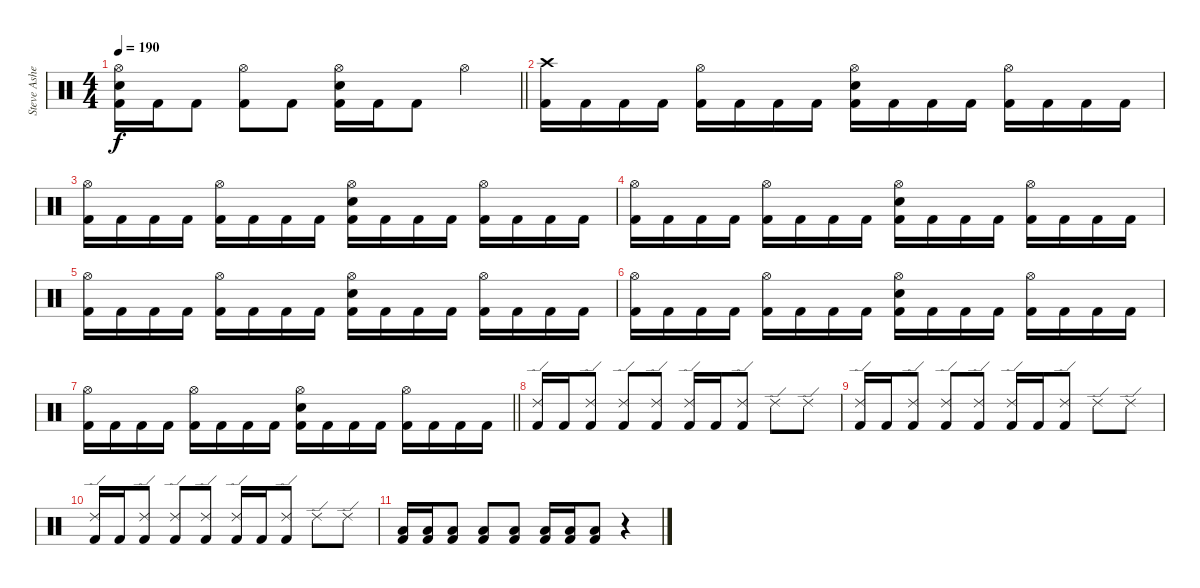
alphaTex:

\track ("Steve Asheim" "Steve Ashe") {instrument percussion}
\staff {score}
\articulation defaults
\ts (4 4)
\tempo 190
\clef neutral
\barLineRight lightlight
\ks c
("Hi-Hat (open)" "Electric Snare (hit)" "Kick (hit) 2").16{dy f} "Kick (hit) 2".16 "Kick (hit) 2".8 ("Hi-Hat (open)" "Kick (hit) 2").8 "Kick (hit) 2".8 ("Hi-Hat (open)" "Electric Snare (hit)" "Kick (hit) 2").16 "Kick (hit) 2".16 "Kick (hit) 2".8 "Hi-Hat (open)".4 |
("Crash high (hit)" "Kick (hit) 2").16 "Kick (hit) 2".16 "Kick (hit) 2".16 "Kick (hit) 2".16 ("Hi-Hat (open)" "Kick (hit) 2").16 "Kick (hit) 2".16 "Kick (hit) 2".16 "Kick (hit) 2".16 ("Hi-Hat (open)" "Electric Snare (hit)" "Kick (hit) 2").16 "Kick (hit) 2".16 "Kick (hit) 2".16 "Kick (hit) 2".16 ("Hi-Hat (open)" "Kick (hit) 2").16 "Kick (hit) 2".16 "Kick (hit) 2".16 "Kick (hit) 2".16 |
("Hi-Hat (open)" "Kick (hit) 2").16 "Kick (hit) 2".16 "Kick (hit) 2".16 "Kick (hit) 2".16 ("Hi-Hat (open)" "Kick (hit) 2").16 "Kick (hit) 2".16 "Kick (hit) 2".16 "Kick (hit) 2".16 ("Hi-Hat (open)" "Electric Snare (hit)" "Kick (hit) 2").16 "Kick (hit) 2".16 "Kick (hit) 2".16 "Kick (hit) 2".16 ("Hi-Hat (open)" "Kick (hit) 2").16 "Kick (hit) 2".16 "Kick (hit) 2".16 "Kick (hit) 2".16 |
("Hi-Hat (open)" "Kick (hit) 2").16 "Kick (hit) 2".16 "Kick (hit) 2".16 "Kick (hit) 2".16 ("Hi-Hat (open)" "Kick (hit) 2").16 "Kick (hit) 2".16 "Kick (hit) 2".16 "Kick (hit) 2".16 ("Hi-Hat (open)" "Electric Snare (hit)" "Kick (hit) 2").16 "Kick (hit) 2".16 "Kick (hit) 2".16 "Kick (hit) 2".16 ("Hi-Hat (open)" "Kick (hit) 2").16 "Kick (hit) 2".16 "Kick (hit) 2".16 "Kick (hit) 2".16 |
("Hi-Hat (open)" "Kick (hit) 2").16 "Kick (hit) 2".16 "Kick (hit) 2".16 "Kick (hit) 2".16 ("Hi-Hat (open)" "Kick (hit) 2").16 "Kick (hit) 2".16 "Kick (hit) 2".16 "Kick (hit) 2".16 ("Hi-Hat (open)" "Electric Snare (hit)" "Kick (hit) 2").16 "Kick (hit) 2".16 "Kick (hit) 2".16 "Kick (hit) 2".16 ("Hi-Hat (open)" "Kick (hit) 2").16 "Kick (hit) 2".16 "Kick (hit) 2".16 "Kick (hit) 2".16 |
("Hi-Hat (open)" "Kick (hit) 2").16 "Kick (hit) 2".16 "Kick (hit) 2".16 "Kick (hit) 2".16 ("Hi-Hat (open)" "Kick (hit) 2").16 "Kick (hit) 2".16 "Kick (hit) 2".16 "Kick (hit) 2".16 ("Hi-Hat (open)" "Electric Snare (hit)" "Kick (hit) 2").16 "Kick (hit) 2".16 "Kick (hit) 2".16 "Kick (hit) 2".16 ("Hi-Hat (open)" "Kick (hit) 2").16 "Kick (hit) 2".16 "Kick (hit) 2".16 "Kick (hit) 2".16 |
\barLineRight lightlight
("Hi-Hat (open)" "Kick (hit) 2").16 "Kick (hit) 2".16 "Kick (hit) 2".16 "Kick (hit) 2".16 ("Hi-Hat (open)" "Kick (hit) 2").16 "Kick (hit) 2".16 "Kick (hit) 2".16 "Kick (hit) 2".16 ("Hi-Hat (open)" "Electric Snare (hit)" "Kick (hit) 2").16 "Kick (hit) 2".16 "Kick (hit) 2".16 "Kick (hit) 2".16 ("Hi-Hat (open)" "Kick (hit) 2").16 "Kick (hit) 2".16 "Kick (hit) 2".16 "Kick (hit) 2".16 |
("Ride (edge) 2" "Kick (hit) 2").16 "Kick (hit) 2".16 ("Ride (edge) 2" "Kick (hit) 2").8 ("Ride (edge) 2" "Kick (hit) 2").8 ("Ride (edge) 2" "Kick (hit) 2").8 ("Ride (edge) 2" "Kick (hit) 2").16 "Kick (hit) 2".16 ("Ride (edge) 2" "Kick (hit) 2").8 "Ride (edge) 2".8 "Ride (edge) 2".8 |
("Ride (edge) 2" "Kick (hit) 2").16 "Kick (hit) 2".16 ("Ride (edge) 2" "Kick (hit) 2").8 ("Ride (edge) 2" "Kick (hit) 2").8 ("Ride (edge) 2" "Kick (hit) 2").8 ("Ride (edge) 2" "Kick (hit) 2").16 "Kick (hit) 2".16 ("Ride (edge) 2" "Kick (hit) 2").8 "Ride (edge) 2".8 "Ride (edge) 2".8 |
("Ride (edge) 2" "Kick (hit) 2").16 "Kick (hit) 2".16 ("Ride (edge) 2" "Kick (hit) 2").8 ("Ride (edge) 2" "Kick (hit) 2").8 ("Ride (edge) 2" "Kick (hit) 2").8 ("Ride (edge) 2" "Kick (hit) 2").16 "Kick (hit) 2".16 ("Ride (edge) 2" "Kick (hit) 2").8 "Ride (edge) 2".8 "Ride (edge) 2".8 |
("Low Tom (hit)" "Kick (hit) 2").16 ("Low Tom (hit)" "Kick (hit) 2").16 ("Low Tom (hit)" "Kick (hit) 2").8 ("Low Tom (hit)" "Kick (hit) 2").8 ("Low Tom (hit)" "Kick (hit) 2").8 ("Low Tom (hit)" "Kick (hit) 2").16 ("Low Tom (hit)" "Kick (hit) 2").16 ("Low Tom (hit)" "Kick (hit) 2").8 r.4
